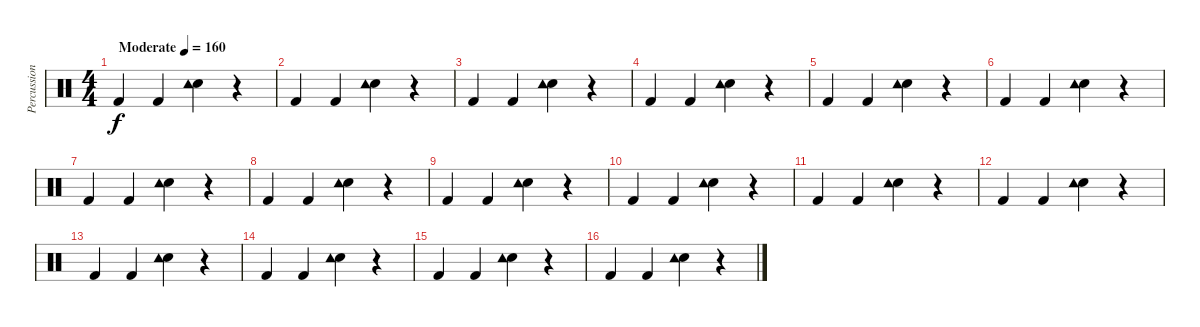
\track ("Percussion" "Percussion") {instrument percussion}
\staff {score}
\articulation defaults
\ts (4 4)
\tempo (160 "Moderate")
\clef neutral
\ks c "Kick (hit) 2".4{dy f} "Kick (hit) 2".4
("Snare (hit) 2" "Tambourine (hit)").4 r.4 |
"Kick (hit) 2".4 "Kick (hit) 2".4 ("Snare (hit) 2" "Tambourine (hit)").4 r.4 |
"Kick (hit) 2".4 "Kick (hit) 2".4 ("Snare (hit) 2" "Tambourine (hit)").4 r.4 |
"Kick (hit) 2".4 "Kick (hit) 2".4 ("Snare (hit) 2" "Tambourine (hit)").4 r.4 |
"Kick (hit) 2".4 "Kick (hit) 2".4 ("Snare (hit) 2" "Tambourine (hit)").4 r.4 |
"Kick (hit) 2".4 "Kick (hit) 2".4 ("Snare (hit) 2" "Tambourine (hit)").4 r.4 |
"Kick (hit) 2".4 "Kick (hit) 2".4 ("Snare (hit) 2" "Tambourine (hit)").4 r.4 |
"Kick (hit) 2".4 "Kick (hit) 2".4 ("Snare (hit) 2" "Tambourine (hit)").4 r.4 |
"Kick (hit) 2".4 "Kick (hit) 2".4 ("Snare (hit) 2" "Tambourine (hit)").4 r.4 |
"Kick (hit) 2".4 "Kick (hit) 2".4 ("Snare (hit) 2" "Tambourine (hit)").4 r.4 |
"Kick (hit) 2".4 "Kick (hit) 2".4 ("Snare (hit) 2" "Tambourine (hit)").4 r.4 |
"Kick (hit) 2".4 "Kick (hit) 2".4 ("Snare (hit) 2" "Tambourine (hit)").4 r.4 |
"Kick (hit) 2".4 "Kick (hit) 2".4 ("Snare (hit) 2" "Tambourine (hit)").4 r.4 |
"Kick (hit) 2".4 "Kick (hit) 2".4 ("Snare (hit) 2" "Tambourine (hit)").4 r.4 |
"Kick (hit) 2".4 "Kick (hit) 2".4 ("Snare (hit) 2" "Tambourine (hit)").4 r.4 |
"Kick (hit) 2".4 "Kick (hit) 2".4 ("Snare (hit) 2" "Tambourine (hit)").4 r.4
